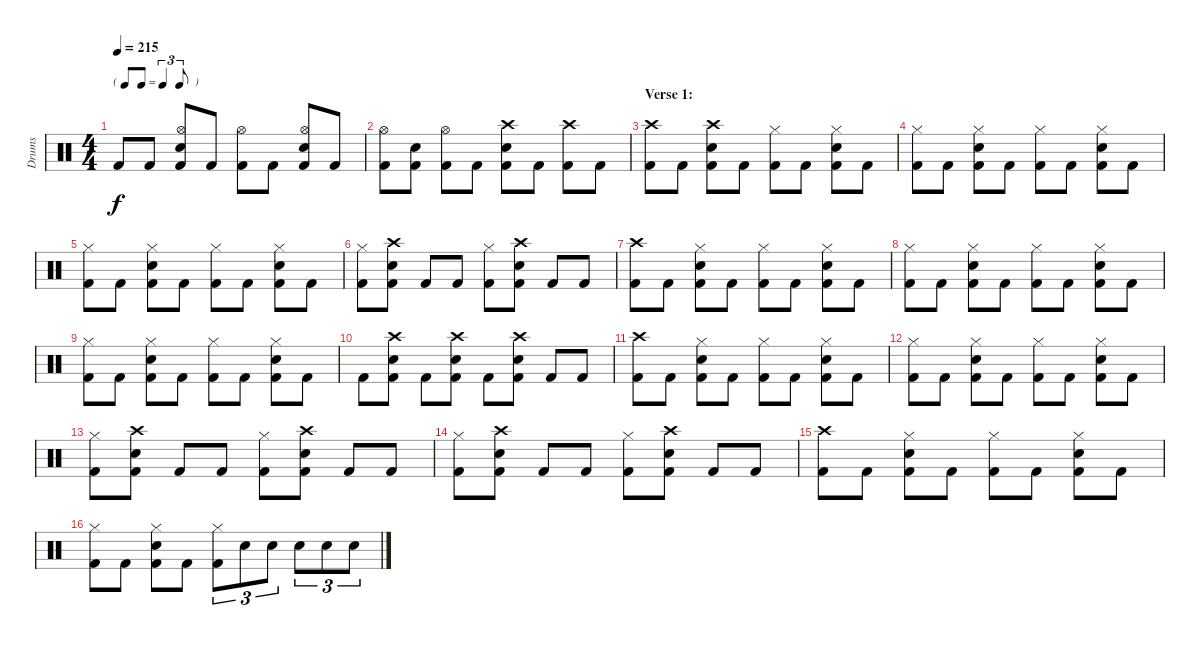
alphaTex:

\track ("Drums" "Drums") {instrument percussion}
\staff {score}
\articulation defaults
\ts (4 4)
\tf triplet8th
\tempo 215
\clef neutral
\ks c "Kick (hit) 2".8{dy f} "Kick (hit) 2".8
("Hi-Hat (open)" "Electric Snare (hit)" "Kick (hit) 2").8 "Kick (hit) 2".8 ("Hi-Hat (open)" "Kick (hit) 2").8 "Kick (hit) 2".8 ("Hi-Hat (open)" "Electric Snare (hit)" "Kick (hit) 2").8 "Kick (hit) 2".8 |
("Hi-Hat (open)" "Kick (hit) 2").8 ("Electric Snare (hit)" "Kick (hit) 2").8 ("Hi-Hat (open)" "Kick (hit) 2").8 "Kick (hit) 2".8 ("Crash high (hit)" "Electric Snare (hit)" "Kick (hit) 2").8 "Kick (hit) 2".8 ("Crash high (hit)" "Kick (hit) 2").8 "Kick (hit) 2".8 |
\section ("" "Verse 1:")
("Crash high (hit)" "Kick (hit) 2").8 "Kick (hit) 2".8 ("Crash high (hit)" "Electric Snare (hit)" "Kick (hit) 2").8 "Kick (hit) 2".8 ("Hi-Hat (closed)" "Kick (hit) 2").8 "Kick (hit) 2".8 ("Hi-Hat (closed)" "Electric Snare (hit)" "Kick (hit) 2").8 "Kick (hit) 2".8 |
("Hi-Hat (closed)" "Kick (hit) 2").8 "Kick (hit) 2".8 ("Hi-Hat (closed)" "Electric Snare (hit)" "Kick (hit) 2").8 "Kick (hit) 2".8 ("Hi-Hat (closed)" "Kick (hit) 2").8 "Kick (hit) 2".8 ("Hi-Hat (closed)" "Electric Snare (hit)" "Kick (hit) 2").8 "Kick (hit) 2".8 |
("Hi-Hat (closed)" "Kick (hit) 2").8 "Kick (hit) 2".8 ("Hi-Hat (closed)" "Electric Snare (hit)" "Kick (hit) 2").8 "Kick (hit) 2".8 ("Hi-Hat (closed)" "Kick (hit) 2").8 "Kick (hit) 2".8 ("Hi-Hat (closed)" "Electric Snare (hit)" "Kick (hit) 2").8 "Kick (hit) 2".8 |
("Hi-Hat (closed)" "Kick (hit) 2").8 ("Crash high (hit)" "Electric Snare (hit)" "Kick (hit) 2").8 "Kick (hit) 2".8 "Kick (hit) 2".8 ("Hi-Hat (closed)" "Kick (hit) 2").8 ("Crash high (hit)" "Electric Snare (hit)" "Kick (hit) 2").8 "Kick (hit) 2".8 "Kick (hit) 2".8 |
("Crash high (hit)" "Kick (hit) 2").8 "Kick (hit) 2".8 ("Hi-Hat (closed)" "Electric Snare (hit)" "Kick (hit) 2").8 "Kick (hit) 2".8 ("Hi-Hat (closed)" "Kick (hit) 2").8 "Kick (hit) 2".8 ("Hi-Hat (closed)" "Electric Snare (hit)" "Kick (hit) 2").8 "Kick (hit) 2".8 |
("Hi-Hat (closed)" "Kick (hit) 2").8 "Kick (hit) 2".8 ("Hi-Hat (closed)" "Electric Snare (hit)" "Kick (hit) 2").8 "Kick (hit) 2".8 ("Hi-Hat (closed)" "Kick (hit) 2").8 "Kick (hit) 2".8 ("Hi-Hat (closed)" "Electric Snare (hit)" "Kick (hit) 2").8 "Kick (hit) 2".8 |
("Hi-Hat (closed)" "Kick (hit) 2").8 "Kick (hit) 2".8 ("Hi-Hat (closed)" "Electric Snare (hit)" "Kick (hit) 2").8 "Kick (hit) 2".8 ("Hi-Hat (closed)" "Kick (hit) 2").8 "Kick (hit) 2".8 ("Hi-Hat (closed)" "Electric Snare (hit)" "Kick (hit) 2").8 "Kick (hit) 2".8 |
"Kick (hit) 2".8 ("Crash high (hit)" "Electric Snare (hit)" "Kick (hit) 2").8 "Kick (hit) 2".8 ("Crash high (hit)" "Electric Snare (hit)" "Kick (hit) 2").8 "Kick (hit) 2".8 ("Crash high (hit)" "Electric Snare (hit)" "Kick (hit) 2").8 "Kick (hit) 2".8 "Kick (hit) 2".8 |
("Crash high (hit)" "Kick (hit) 2").8 "Kick (hit) 2".8 ("Hi-Hat (closed)" "Electric Snare (hit)" "Kick (hit) 2").8 "Kick (hit) 2".8 ("Hi-Hat (closed)" "Kick (hit) 2").8 "Kick (hit) 2".8 ("Hi-Hat (closed)" "Electric Snare (hit)" "Kick (hit) 2").8 "Kick (hit) 2".8 |
("Hi-Hat (closed)" "Kick (hit) 2").8 "Kick (hit) 2".8 ("Hi-Hat (closed)" "Electric Snare (hit)" "Kick (hit) 2").8 "Kick (hit) 2".8 ("Hi-Hat (closed)" "Kick (hit) 2").8 "Kick (hit) 2".8 ("Hi-Hat (closed)" "Electric Snare (hit)" "Kick (hit) 2").8 "Kick (hit) 2".8 |
("Hi-Hat (closed)" "Kick (hit) 2").8 ("Crash high (hit)" "Electric Snare (hit)" "Kick (hit) 2").8 "Kick (hit) 2".8 "Kick (hit) 2".8 ("Hi-Hat (closed)" "Kick (hit) 2").8 ("Crash high (hit)" "Electric Snare (hit)" "Kick (hit) 2").8 "Kick (hit) 2".8 "Kick (hit) 2".8 |
("Hi-Hat (closed)" "Kick (hit) 2").8 ("Crash high (hit)" "Electric Snare (hit)" "Kick (hit) 2").8 "Kick (hit) 2".8 "Kick (hit) 2".8 ("Hi-Hat (closed)" "Kick (hit) 2").8 ("Crash high (hit)" "Electric Snare (hit)" "Kick (hit) 2").8 "Kick (hit) 2".8 "Kick (hit) 2".8 |
("Crash high (hit)" "Kick (hit) 2").8 "Kick (hit) 2".8 ("Hi-Hat (closed)" "Electric Snare (hit)" "Kick (hit) 2").8 "Kick (hit) 2".8 ("Hi-Hat (closed)" "Kick (hit) 2").8 "Kick (hit) 2".8 ("Hi-Hat (closed)" "Electric Snare (hit)" "Kick (hit) 2").8 "Kick (hit) 2".8 |
("Hi-Hat (closed)" "Kick (hit) 2").8 "Kick (hit) 2".8 ("Hi-Hat (closed)" "Electric Snare (hit)" "Kick (hit) 2").8 "Kick (hit) 2".8 ("Hi-Hat (closed)" "Kick (hit) 2").8{tu (3 2)} "Electric Snare (hit)".8{tu (3 2)} "Electric Snare (hit)".8{tu (3 2)} "Electric Snare (hit)".8{tu (3 2)} "Electric Snare (hit)".8{tu (3 2)} "Electric Snare (hit)".8{tu (3 2)}
